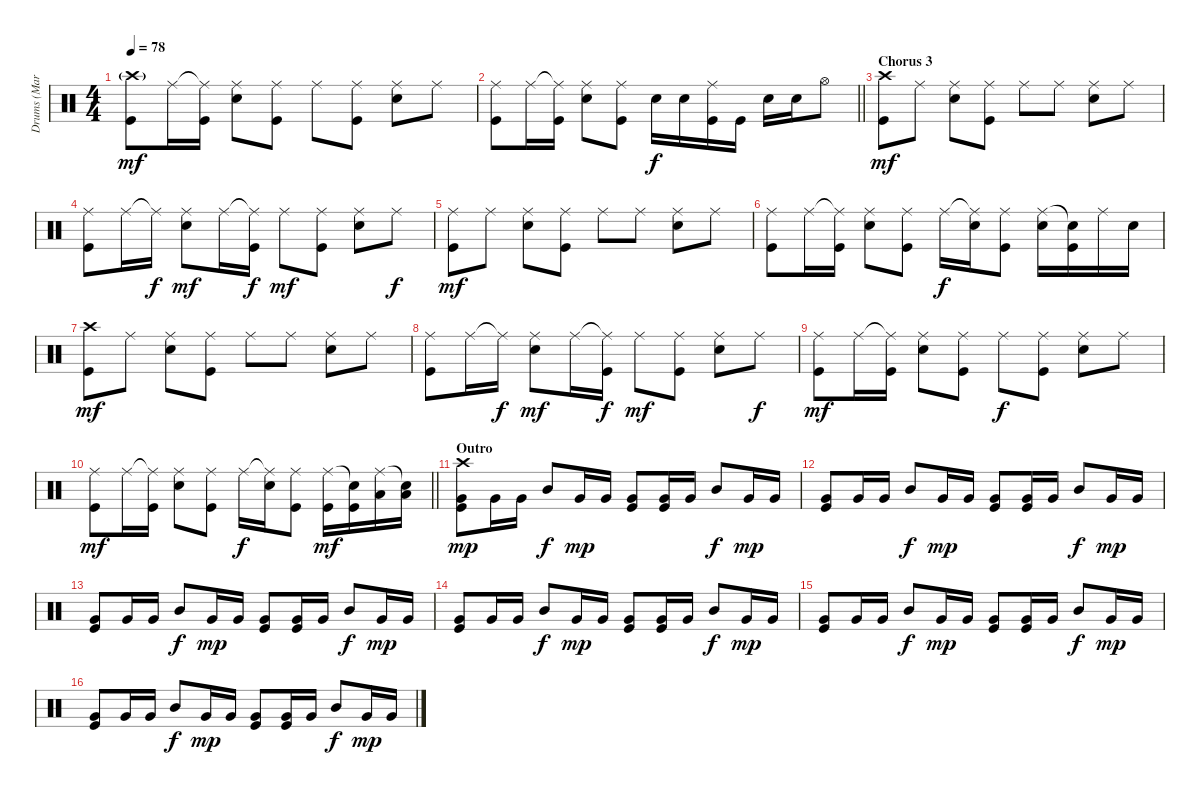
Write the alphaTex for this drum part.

\track ("Drums (Marcel Roemer)" "Drums (Mar") {instrument percussion}
\staff {score}
\articulation defaults
\ts (4 4)
\tempo 78
\clef neutral
\ks c
("Crash high (hit)"{g} "Kick (hit)").8{dy mf} "Ride (middle)".16 ("Ride (middle)"{t} "Kick (hit)").16 ("Ride (middle)" "Snare (hit) 2").8 ("Ride (middle)" "Kick (hit)").8 "Ride (middle)".8 ("Ride (middle)" "Kick (hit)").8 ("Ride (middle)" "Snare (hit) 2").8 "Ride (middle)".8 |
\barLineRight lightlight
("Ride (middle)" "Kick (hit)").8 "Ride (middle)".16 ("Ride (middle)"{t} "Kick (hit)").16 ("Ride (middle)" "Snare (hit) 2").8 ("Ride (middle)" "Kick (hit)").8 "Snare (hit) 2".16{dy f} "Snare (hit) 2".16 ("Ride (middle)" "Kick (hit)").16 "Kick (hit)".16 "Snare (hit) 2".16 "Snare (hit) 2".16 "Hi-Hat (open)".8 |
\section ("" "Chorus 3")
("Crash high (hit)" "Kick (hit)").8{dy mf} "Ride (middle)".8 ("Ride (middle)" "Snare (hit) 2").8 ("Ride (middle)" "Kick (hit)").8 "Ride (middle)".8 "Ride (middle)".8 ("Ride (middle)" "Snare (hit) 2").8 "Ride (middle)".8 |
("Ride (middle)" "Kick (hit)").8 "Ride (middle)".16 "Ride (middle)"{t}.16{dy f} ("Ride (middle)" "Snare (hit) 2").8{dy mf} "Ride (middle)".16 ("Ride (middle)"{t} "Kick (hit)").16{dy f} "Ride (middle)".8{dy mf} ("Ride (middle)" "Kick (hit)").8 ("Ride (middle)" "Snare (hit) 2").8 "Ride (middle)".8{dy f} |
("Ride (middle)" "Kick (hit)").8{dy mf} "Ride (middle)".8 ("Ride (middle)" "Snare (hit) 2").8 ("Ride (middle)" "Kick (hit)").8 "Ride (middle)".8 "Ride (middle)".8 ("Ride (middle)" "Snare (hit) 2").8 "Ride (middle)".8 |
("Ride (middle)" "Kick (hit)").8 "Ride (middle)".16 ("Ride (middle)"{t} "Kick (hit)").16 ("Ride (middle)" "Snare (hit) 2").8 ("Ride (middle)" "Kick (hit)").8 "Ride (middle)".16{dy f} ("Ride (middle)"{t} "Snare (hit) 2").16 ("Ride (middle)" "Kick (hit)").8 ("Ride (middle)" "Snare (hit) 2").16 ("Snare (hit)"{t} "Kick (hit)").16 "Ride (middle)".16 "Snare (hit) 2".16 |
("Crash high (hit)" "Kick (hit)").8{dy mf} "Ride (middle)".8 ("Ride (middle)" "Snare (hit) 2").8 ("Ride (middle)" "Kick (hit)").8 "Ride (middle)".8 "Ride (middle)".8 ("Ride (middle)" "Snare (hit) 2").8 "Ride (middle)".8 |
("Ride (middle)" "Kick (hit)").8 "Ride (middle)".16 "Ride (middle)"{t}.16{dy f} ("Ride (middle)" "Snare (hit) 2").8{dy mf} "Ride (middle)".16 ("Ride (middle)"{t} "Kick (hit)").16{dy f} "Ride (middle)".8{dy mf} ("Ride (middle)" "Kick (hit)").8 ("Ride (middle)" "Snare (hit) 2").8 "Ride (middle)".8{dy f} |
("Ride (middle)" "Kick (hit)").8{dy mf} "Ride (middle)".16 ("Ride (middle)"{t} "Kick (hit)").16 ("Ride (middle)" "Snare (hit) 2").8 ("Ride (middle)" "Kick (hit)").8 "Ride (middle)".8{dy f} ("Ride (middle)" "Kick (hit)").8 ("Ride (middle)" "Snare (hit) 2").8 "Ride (middle)".8 |
\barLineRight lightlight
("Ride (middle)" "Kick (hit)").8{dy mf} "Ride (middle)".16 ("Ride (middle)"{t} "Kick (hit)").16 ("Ride (middle)" "Snare (hit) 2").8 ("Ride (middle)" "Kick (hit)").8 "Ride (middle)".16{dy f} ("Ride (middle)"{t} "Snare (hit) 2").16 ("Ride (middle)" "Kick (hit)").8 ("Ride (middle)" "Kick (hit)").16{dy mf} ("Snare (hit)"{t} "Kick (hit)").16 ("Ride (middle)" "Low Tom (hit)").16 ("Snare (hit)"{t} "Low Floor Tom (hit)").16 |
\section ("" "Outro")
("Crash high (hit)" "Very Low Tom (hit)" "Kick (hit)").8{dy mp} "Very Low Tom (hit)".16 "Very Low Tom (hit)".16 "Mid Tom (hit)".8{dy f} "Very Low Tom (hit)".16{dy mp} "Very Low Tom (hit)".16 ("Very Low Tom (hit)" "Kick (hit)").8 ("Very Low Tom (hit)" "Kick (hit)").16 "Very Low Tom (hit)".16 "Mid Tom (hit)".8{dy f} "Very Low Tom (hit)".16{dy mp} "Very Low Tom (hit)".16 |
("Very Low Tom (hit)" "Kick (hit)").8 "Very Low Tom (hit)".16 "Very Low Tom (hit)".16 "Mid Tom (hit)".8{dy f} "Very Low Tom (hit)".16{dy mp} "Very Low Tom (hit)".16 ("Very Low Tom (hit)" "Kick (hit)").8 ("Very Low Tom (hit)" "Kick (hit)").16 "Very Low Tom (hit)".16 "Mid Tom (hit)".8{dy f} "Very Low Tom (hit)".16{dy mp} "Very Low Tom (hit)".16 |
("Very Low Tom (hit)" "Kick (hit)").8 "Very Low Tom (hit)".16 "Very Low Tom (hit)".16 "Mid Tom (hit)".8{dy f} "Very Low Tom (hit)".16{dy mp} "Very Low Tom (hit)".16 ("Very Low Tom (hit)" "Kick (hit)").8 ("Very Low Tom (hit)" "Kick (hit)").16 "Very Low Tom (hit)".16 "Mid Tom (hit)".8{dy f} "Very Low Tom (hit)".16{dy mp} "Very Low Tom (hit)".16 |
("Very Low Tom (hit)" "Kick (hit)").8 "Very Low Tom (hit)".16 "Very Low Tom (hit)".16 "Mid Tom (hit)".8{dy f} "Very Low Tom (hit)".16{dy mp} "Very Low Tom (hit)".16 ("Very Low Tom (hit)" "Kick (hit)").8 ("Very Low Tom (hit)" "Kick (hit)").16 "Very Low Tom (hit)".16 "Mid Tom (hit)".8{dy f} "Very Low Tom (hit)".16{dy mp} "Very Low Tom (hit)".16 |
("Very Low Tom (hit)" "Kick (hit)").8 "Very Low Tom (hit)".16 "Very Low Tom (hit)".16 "Mid Tom (hit)".8{dy f} "Very Low Tom (hit)".16{dy mp} "Very Low Tom (hit)".16 ("Very Low Tom (hit)" "Kick (hit)").8 ("Very Low Tom (hit)" "Kick (hit)").16 "Very Low Tom (hit)".16 "Mid Tom (hit)".8{dy f} "Very Low Tom (hit)".16{dy mp} "Very Low Tom (hit)".16 |
("Very Low Tom (hit)" "Kick (hit)").8 "Very Low Tom (hit)".16 "Very Low Tom (hit)".16 "Mid Tom (hit)".8{dy f} "Very Low Tom (hit)".16{dy mp} "Very Low Tom (hit)".16 ("Very Low Tom (hit)" "Kick (hit)").8 ("Very Low Tom (hit)" "Kick (hit)").16 "Very Low Tom (hit)".16 "Mid Tom (hit)".8{dy f} "Very Low Tom (hit)".16{dy mp} "Very Low Tom (hit)".16
